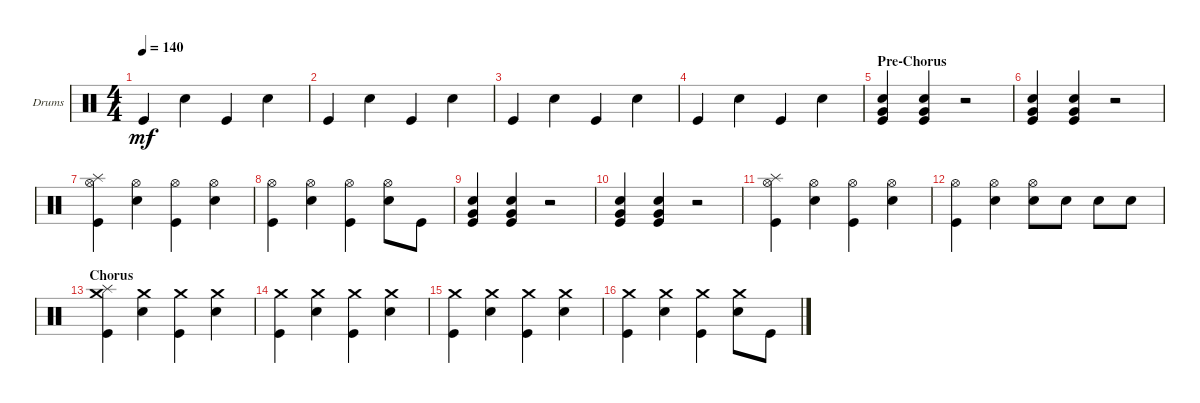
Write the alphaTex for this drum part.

\defaultSystemsLayout 4
\bracketExtendMode groupsimilarinstruments
\firstSystemTrackNameOrientation horizontal
\otherSystemsTrackNameOrientation horizontal
\track ("Drumkit" "Drums") {instrument percussion}
\staff {score}
\articulation defaults
\ts (4 4)
\tempo 140
\clef neutral
\ks c "Kick (hit)".4{dy mf} "Snare (hit) 2".4 "Kick (hit)".4 "Snare (hit) 2".4
|
"Kick (hit)".4 "Snare (hit) 2".4 "Kick (hit)".4 "Snare (hit) 2".4 |
"Kick (hit)".4 "Snare (hit) 2".4 "Kick (hit)".4 "Snare (hit) 2".4 |
"Kick (hit)".4 "Snare (hit) 2".4 "Kick (hit)".4 "Snare (hit) 2".4 |
\section ("" "Pre-Chorus")
("Kick (hit)" "Snare (hit) 2" "Very Low Tom (hit)").4 ("Snare (hit) 2" "Kick (hit)" "Very Low Tom (hit)").4 r.2 |
("Kick (hit)" "Snare (hit) 2" "Very Low Tom (hit)").4 ("Snare (hit) 2" "Kick (hit)" "Very Low Tom (hit)").4 r.2 |
("Splash (hit)" "Hi-Hat (open)" "Kick (hit)").4 ("Hi-Hat (open)" "Snare (hit) 2").4 ("Kick (hit)" "Hi-Hat (open)").4 ("Snare (hit) 2" "Hi-Hat (open)").4 |
("Hi-Hat (open)" "Kick (hit)").4 ("Hi-Hat (open)" "Snare (hit) 2").4 ("Kick (hit)" "Hi-Hat (open)").4 ("Snare (hit) 2" "Hi-Hat (open)").8 "Kick (hit)".8 |
("Kick (hit)" "Snare (hit) 2" "Very Low Tom (hit)").4 ("Snare (hit) 2" "Kick (hit)" "Very Low Tom (hit)").4 r.2 |
("Kick (hit)" "Snare (hit) 2" "Very Low Tom (hit)").4 ("Snare (hit) 2" "Kick (hit)" "Very Low Tom (hit)").4 r.2 |
("Splash (hit)" "Hi-Hat (open)" "Kick (hit)").4 ("Hi-Hat (open)" "Snare (hit) 2").4 ("Kick (hit)" "Hi-Hat (open)").4 ("Snare (hit) 2" "Hi-Hat (open)").4 |
("Hi-Hat (open)" "Kick (hit)").4 ("Hi-Hat (open)" "Snare (hit) 2").4 ("Hi-Hat (open)" "Snare (hit) 2").8 "Snare (hit) 2".8 "Snare (hit) 2".8 "Snare (hit) 2".8 |
\section ("" "Chorus")
("Splash (hit)" "Kick (hit)" "Crash medium (hit)").4 ("Snare (hit) 2" "Crash medium (hit)").4 ("Kick (hit)" "Crash medium (hit)").4 ("Snare (hit) 2" "Crash medium (hit)").4 |
("Kick (hit)" "Crash medium (hit)").4 ("Snare (hit) 2" "Crash medium (hit)").4 ("Kick (hit)" "Crash medium (hit)").4 ("Snare (hit) 2" "Crash medium (hit)").4 |
("Kick (hit)" "Crash medium (hit)").4 ("Snare (hit) 2" "Crash medium (hit)").4 ("Kick (hit)" "Crash medium (hit)").4 ("Snare (hit) 2" "Crash medium (hit)").4 |
("Kick (hit)" "Crash medium (hit)").4 ("Snare (hit) 2" "Crash medium (hit)").4 ("Kick (hit)" "Crash medium (hit)").4 ("Snare (hit) 2" "Crash medium (hit)").8 "Kick (hit)".8
